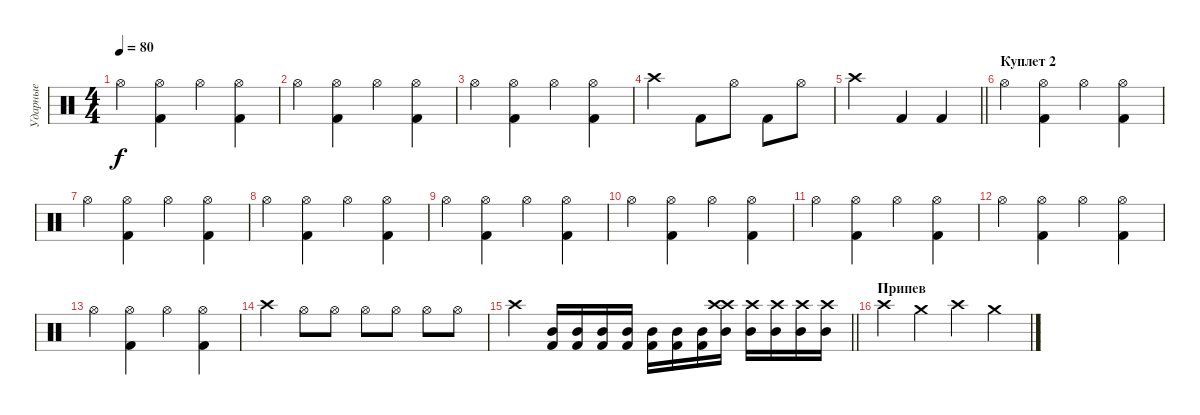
\track ("Ударные" "Ударные") {instrument percussion}
\staff {score}
\articulation defaults
\ts (4 4)
\tempo 80
\clef neutral
\ks c "Hi-Hat (open)".4{dy f}
("Hi-Hat (open)" "Kick (hit) 2").4 "Hi-Hat (open)".4 ("Hi-Hat (open)" "Kick (hit) 2").4 |
"Hi-Hat (open)".4 ("Hi-Hat (open)" "Kick (hit) 2").4 "Hi-Hat (open)".4 ("Hi-Hat (open)" "Kick (hit) 2").4 |
"Hi-Hat (open)".4 ("Hi-Hat (open)" "Kick (hit) 2").4 "Hi-Hat (open)".4 ("Hi-Hat (open)" "Kick (hit) 2").4 |
"Crash high (hit)".2 "Kick (hit) 2".8 "Hi-Hat (open)".8 "Kick (hit) 2".8 "Hi-Hat (open)".8 |
\barLineRight lightlight "Crash high (hit)".2 "Kick (hit) 2".4 "Kick (hit) 2".4
|
\section ("" "Куплет 2")
"Hi-Hat (open)".4 ("Hi-Hat (open)" "Kick (hit) 2").4 "Hi-Hat (open)".4 ("Hi-Hat (open)" "Kick (hit) 2").4 |
"Hi-Hat (open)".4 ("Hi-Hat (open)" "Kick (hit) 2").4 "Hi-Hat (open)".4 ("Hi-Hat (open)" "Kick (hit) 2").4 |
"Hi-Hat (open)".4 ("Hi-Hat (open)" "Kick (hit) 2").4 "Hi-Hat (open)".4 ("Hi-Hat (open)" "Kick (hit) 2").4 |
"Hi-Hat (open)".4 ("Hi-Hat (open)" "Kick (hit) 2").4 "Hi-Hat (open)".4 ("Hi-Hat (open)" "Kick (hit) 2").4 |
"Hi-Hat (open)".4 ("Hi-Hat (open)" "Kick (hit) 2").4 "Hi-Hat (open)".4 ("Hi-Hat (open)" "Kick (hit) 2").4 |
"Hi-Hat (open)".4 ("Hi-Hat (open)" "Kick (hit) 2").4 "Hi-Hat (open)".4 ("Hi-Hat (open)" "Kick (hit) 2").4 |
"Hi-Hat (open)".4 ("Hi-Hat (open)" "Kick (hit) 2").4 "Hi-Hat (open)".4 ("Hi-Hat (open)" "Kick (hit) 2").4 |
"Hi-Hat (open)".4 ("Hi-Hat (open)" "Kick (hit) 2").4 "Hi-Hat (open)".4 ("Hi-Hat (open)" "Kick (hit) 2").4 |
"Crash high (hit)".4 "Hi-Hat (open)".8 "Hi-Hat (open)".8 "Hi-Hat (open)".8 "Hi-Hat (open)".8 "Hi-Hat (open)".8 "Hi-Hat (open)".8 |
\barLineRight lightlight "Crash high (hit)".4
("Kick (hit) 2" "Mid Tom (hit)").16 ("Kick (hit) 2" "Mid Tom (hit)").16 ("Kick (hit) 2" "Mid Tom (hit)").16 ("Kick (hit) 2" "Mid Tom (hit)").16 ("Kick (hit) 2" "Mid Tom (hit)").16 ("Kick (hit) 2" "Mid Tom (hit)").16 ("Kick (hit) 2" "Mid Tom (hit)").16 ("Crash high (hit)" "Crash high (hit)" "Mid Tom (hit)").16 ("Crash high (hit)" "Mid Tom (hit)").16 ("Crash high (hit)" "Mid Tom (hit)").16 ("Crash high (hit)" "Mid Tom (hit)").16 ("Crash high (hit)" "Mid Tom (hit)").16 |
\section ("" "Припев")
"Crash high (hit)".4 "Crash medium (hit)".4 "Crash high (hit)".4 "Crash medium (hit)".4
